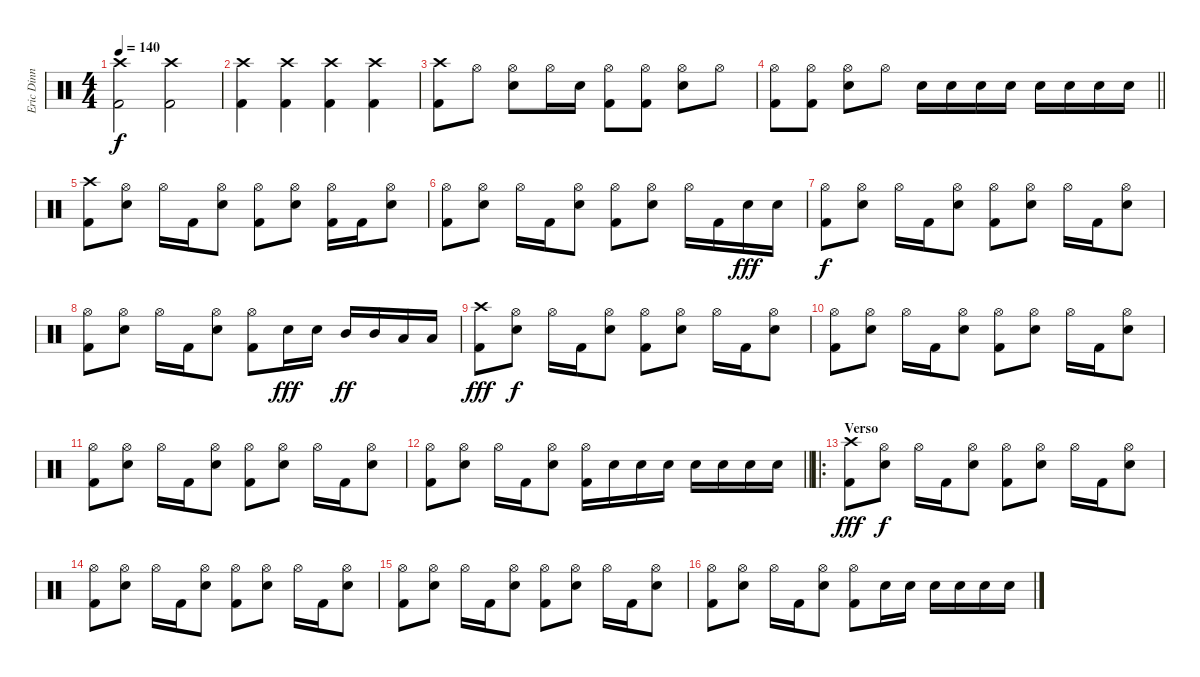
\track ("Eric Dinn" "Eric Dinn") {instrument percussion}
\staff {score}
\articulation defaults
\ts (4 4)
\tempo 140
\clef neutral
\ks c
("Crash high (hit)" "Kick (hit) 2").2{dy f} ("Crash high (hit)" "Kick (hit) 2").2 |
("Crash high (hit)" "Kick (hit) 2").4 ("Crash high (hit)" "Kick (hit) 2").4 ("Crash high (hit)" "Kick (hit) 2").4 ("Crash high (hit)" "Kick (hit) 2").4 |
("Crash high (hit)" "Kick (hit) 2").8 "Hi-Hat (open)".8 ("Hi-Hat (open)" "Snare (hit) 2").8 "Hi-Hat (open)".16 "Snare (hit) 2".16 ("Hi-Hat (open)" "Kick (hit) 2").8 ("Hi-Hat (open)" "Kick (hit) 2").8 ("Hi-Hat (open)" "Snare (hit) 2").8 "Hi-Hat (open)".8 |
\barLineRight lightlight
("Hi-Hat (open)" "Kick (hit) 2").8 ("Hi-Hat (open)" "Kick (hit) 2").8 ("Hi-Hat (open)" "Snare (hit) 2").8 "Hi-Hat (open)".8 "Snare (hit) 2".16 "Snare (hit) 2".16 "Snare (hit) 2".16 "Snare (hit) 2".16 "Snare (hit) 2".16 "Snare (hit) 2".16 "Snare (hit) 2".16 "Snare (hit) 2".16 |
("Crash high (hit)" "Kick (hit) 2").8 ("Hi-Hat (open)" "Snare (hit) 2").8 "Hi-Hat (open)".16 "Kick (hit) 2".16 ("Hi-Hat (open)" "Snare (hit) 2").8 ("Hi-Hat (open)" "Kick (hit) 2").8 ("Hi-Hat (open)" "Snare (hit) 2").8 ("Hi-Hat (open)" "Kick (hit) 2").16 "Kick (hit) 2".16 ("Hi-Hat (open)" "Snare (hit) 2").8 |
("Hi-Hat (open)" "Kick (hit) 2").8 ("Hi-Hat (open)" "Snare (hit) 2").8 "Hi-Hat (open)".16 "Kick (hit) 2".16 ("Hi-Hat (open)" "Snare (hit) 2").8 ("Hi-Hat (open)" "Kick (hit) 2").8 ("Hi-Hat (open)" "Snare (hit) 2").8 "Hi-Hat (open)".16 "Kick (hit) 2".16 "Snare (hit) 2".16{dy fff} "Snare (hit) 2".16 |
("Hi-Hat (open)" "Kick (hit) 2").8{dy f} ("Hi-Hat (open)" "Snare (hit) 2").8 "Hi-Hat (open)".16 "Kick (hit) 2".16 ("Hi-Hat (open)" "Snare (hit) 2").8 ("Hi-Hat (open)" "Kick (hit) 2").8 ("Hi-Hat (open)" "Snare (hit) 2").8 "Hi-Hat (open)".16 "Kick (hit) 2".16 ("Hi-Hat (open)" "Snare (hit) 2").8 |
("Hi-Hat (open)" "Kick (hit) 2").8 ("Hi-Hat (open)" "Snare (hit) 2").8 "Hi-Hat (open)".16 "Kick (hit) 2".16 ("Hi-Hat (open)" "Snare (hit) 2").8 ("Hi-Hat (open)" "Kick (hit) 2").8 "Snare (hit) 2".16{dy fff} "Snare (hit) 2".16 "Mid Tom (hit)".16{dy ff} "Mid Tom (hit)".16 "Low Tom (hit)".16 "Low Tom (hit)".16 |
("Crash high (hit)" "Kick (hit) 2").8{dy fff} ("Hi-Hat (open)" "Snare (hit) 2").8{dy f} "Hi-Hat (open)".16 "Kick (hit) 2".16 ("Hi-Hat (open)" "Snare (hit) 2").8 ("Hi-Hat (open)" "Kick (hit) 2").8 ("Hi-Hat (open)" "Snare (hit) 2").8 "Hi-Hat (open)".16 "Kick (hit) 2".16 ("Hi-Hat (open)" "Snare (hit) 2").8 |
("Hi-Hat (open)" "Kick (hit) 2").8 ("Hi-Hat (open)" "Snare (hit) 2").8 "Hi-Hat (open)".16 "Kick (hit) 2".16 ("Hi-Hat (open)" "Snare (hit) 2").8 ("Hi-Hat (open)" "Kick (hit) 2").8 ("Hi-Hat (open)" "Snare (hit) 2").8 "Hi-Hat (open)".16 "Kick (hit) 2".16 ("Hi-Hat (open)" "Snare (hit) 2").8 |
("Hi-Hat (open)" "Kick (hit) 2").8 ("Hi-Hat (open)" "Snare (hit) 2").8 "Hi-Hat (open)".16 "Kick (hit) 2".16 ("Hi-Hat (open)" "Snare (hit) 2").8 ("Hi-Hat (open)" "Kick (hit) 2").8 ("Hi-Hat (open)" "Snare (hit) 2").8 "Hi-Hat (open)".16 "Kick (hit) 2".16 ("Hi-Hat (open)" "Snare (hit) 2").8 |
\barLineRight lightlight
("Hi-Hat (open)" "Kick (hit) 2").8 ("Hi-Hat (open)" "Snare (hit) 2").8 "Hi-Hat (open)".16 "Kick (hit) 2".16 ("Hi-Hat (open)" "Snare (hit) 2").8 ("Hi-Hat (open)" "Kick (hit) 2").16 "Snare (hit) 2".16 "Snare (hit) 2".16 "Snare (hit) 2".16 "Snare (hit) 2".16 "Snare (hit) 2".16 "Snare (hit) 2".16 "Snare (hit) 2".16 |
\ro
\section ("" "Verso")
("Crash high (hit)" "Kick (hit) 2").8{dy fff} ("Hi-Hat (open)" "Snare (hit) 2").8{dy f} "Hi-Hat (open)".16 "Kick (hit) 2".16 ("Hi-Hat (open)" "Snare (hit) 2").8 ("Hi-Hat (open)" "Kick (hit) 2").8 ("Hi-Hat (open)" "Snare (hit) 2").8 "Hi-Hat (open)".16 "Kick (hit) 2".16 ("Hi-Hat (open)" "Snare (hit) 2").8 |
("Hi-Hat (open)" "Kick (hit) 2").8 ("Hi-Hat (open)" "Snare (hit) 2").8 "Hi-Hat (open)".16 "Kick (hit) 2".16 ("Hi-Hat (open)" "Snare (hit) 2").8 ("Hi-Hat (open)" "Kick (hit) 2").8 ("Hi-Hat (open)" "Snare (hit) 2").8 "Hi-Hat (open)".16 "Kick (hit) 2".16 ("Hi-Hat (open)" "Snare (hit) 2").8 |
("Hi-Hat (open)" "Kick (hit) 2").8 ("Hi-Hat (open)" "Snare (hit) 2").8 "Hi-Hat (open)".16 "Kick (hit) 2".16 ("Hi-Hat (open)" "Snare (hit) 2").8 ("Hi-Hat (open)" "Kick (hit) 2").8 ("Hi-Hat (open)" "Snare (hit) 2").8 "Hi-Hat (open)".16 "Kick (hit) 2".16 ("Hi-Hat (open)" "Snare (hit) 2").8 |
("Hi-Hat (open)" "Kick (hit) 2").8 ("Hi-Hat (open)" "Snare (hit) 2").8 "Hi-Hat (open)".16 "Kick (hit) 2".16 ("Hi-Hat (open)" "Snare (hit) 2").8 ("Hi-Hat (open)" "Kick (hit) 2").8 "Snare (hit) 2".16 "Snare (hit) 2".16 "Snare (hit) 2".16 "Snare (hit) 2".16 "Snare (hit) 2".16 "Snare (hit) 2".16
